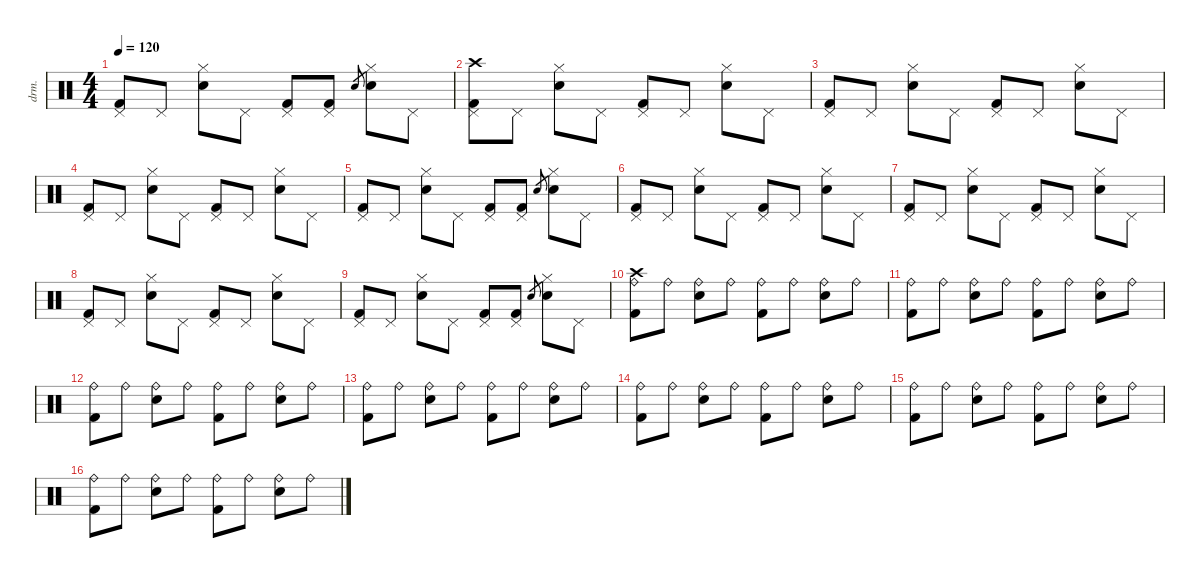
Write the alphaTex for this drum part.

\defaultSystemsLayout 4
\hideDynamics
\bracketExtendMode nobrackets
\otherSystemsTrackNameOrientation horizontal
\track ("Jeff Campitelli" "drm.") {instrument percussion}
\staff {score}
\articulation defaults
\ts (4 4)
\tempo 120
\clef neutral
\ks c
("Pedal Hi-Hat (hit)" "Kick (hit) 2").8{dy f beam Up} "Pedal Hi-Hat (hit)".8{beam Up} ("Hi-Hat (closed)" "Snare (hit) 2").8{beam Down} "Pedal Hi-Hat (hit)".8{beam Down} ("Pedal Hi-Hat (hit)" "Kick (hit) 2").8{beam Up} ("Pedal Hi-Hat (hit)" "Kick (hit) 2").8{beam Up} "Snare (hit) 2".8{gr dy mf beam Up} ("Hi-Hat (closed)" "Snare (hit) 2").8{dy f beam Down} "Pedal Hi-Hat (hit)".8{beam Down} |
("Crash high (hit)" "Pedal Hi-Hat (hit)" "Kick (hit) 2").8{beam Down} "Pedal Hi-Hat (hit)".8{beam Down} ("Hi-Hat (closed)" "Snare (hit) 2").8{beam Down} "Pedal Hi-Hat (hit)".8{beam Down} ("Pedal Hi-Hat (hit)" "Kick (hit) 2").8{beam Up} "Pedal Hi-Hat (hit)".8{beam Up} ("Hi-Hat (closed)" "Snare (hit) 2").8{beam Down} "Pedal Hi-Hat (hit)".8{beam Down} |
("Pedal Hi-Hat (hit)" "Kick (hit) 2").8{beam Up} "Pedal Hi-Hat (hit)".8{beam Up} ("Hi-Hat (closed)" "Snare (hit) 2").8{beam Down} "Pedal Hi-Hat (hit)".8{beam Down} ("Pedal Hi-Hat (hit)" "Kick (hit) 2").8{beam Up} "Pedal Hi-Hat (hit)".8{beam Up} ("Hi-Hat (closed)" "Snare (hit) 2").8{beam Down} "Pedal Hi-Hat (hit)".8{beam Down} |
("Pedal Hi-Hat (hit)" "Kick (hit) 2").8{beam Up} "Pedal Hi-Hat (hit)".8{beam Up} ("Hi-Hat (closed)" "Snare (hit) 2").8{beam Down} "Pedal Hi-Hat (hit)".8{beam Down} ("Pedal Hi-Hat (hit)" "Kick (hit) 2").8{beam Up} "Pedal Hi-Hat (hit)".8{beam Up} ("Hi-Hat (closed)" "Snare (hit) 2").8{beam Down} "Pedal Hi-Hat (hit)".8{beam Down} |
("Pedal Hi-Hat (hit)" "Kick (hit) 2").8{beam Up} "Pedal Hi-Hat (hit)".8{beam Up} ("Hi-Hat (closed)" "Snare (hit) 2").8{beam Down} "Pedal Hi-Hat (hit)".8{beam Down} ("Pedal Hi-Hat (hit)" "Kick (hit) 2").8{beam Up} ("Pedal Hi-Hat (hit)" "Kick (hit) 2").8{beam Up} "Snare (hit) 2".8{gr dy mf beam Up} ("Hi-Hat (closed)" "Snare (hit) 2").8{dy f beam Down} "Pedal Hi-Hat (hit)".8{beam Down} |
("Pedal Hi-Hat (hit)" "Kick (hit) 2").8{beam Up} "Pedal Hi-Hat (hit)".8{beam Up} ("Hi-Hat (closed)" "Snare (hit) 2").8{beam Down} "Pedal Hi-Hat (hit)".8{beam Down} ("Pedal Hi-Hat (hit)" "Kick (hit) 2").8{beam Up} "Pedal Hi-Hat (hit)".8{beam Up} ("Hi-Hat (closed)" "Snare (hit) 2").8{beam Down} "Pedal Hi-Hat (hit)".8{beam Down} |
("Pedal Hi-Hat (hit)" "Kick (hit) 2").8{beam Up} "Pedal Hi-Hat (hit)".8{beam Up} ("Hi-Hat (closed)" "Snare (hit) 2").8{beam Down} "Pedal Hi-Hat (hit)".8{beam Down} ("Pedal Hi-Hat (hit)" "Kick (hit) 2").8{beam Up} "Pedal Hi-Hat (hit)".8{beam Up} ("Hi-Hat (closed)" "Snare (hit) 2").8{beam Down} "Pedal Hi-Hat (hit)".8{beam Down} |
("Pedal Hi-Hat (hit)" "Kick (hit) 2").8{beam Up} "Pedal Hi-Hat (hit)".8{beam Up} ("Hi-Hat (closed)" "Snare (hit) 2").8{beam Down} "Pedal Hi-Hat (hit)".8{beam Down} ("Pedal Hi-Hat (hit)" "Kick (hit) 2").8{beam Up} "Pedal Hi-Hat (hit)".8{beam Up} ("Hi-Hat (closed)" "Snare (hit) 2").8{beam Down} "Pedal Hi-Hat (hit)".8{beam Down} |
("Pedal Hi-Hat (hit)" "Kick (hit) 2").8{beam Up} "Pedal Hi-Hat (hit)".8{beam Up} ("Hi-Hat (closed)" "Snare (hit) 2").8{beam Down} "Pedal Hi-Hat (hit)".8{beam Down} ("Pedal Hi-Hat (hit)" "Kick (hit) 2").8{beam Up} ("Pedal Hi-Hat (hit)" "Kick (hit) 2").8{beam Up} "Snare (hit) 2".8{gr dy mf beam Up} ("Hi-Hat (closed)" "Snare (hit) 2").8{dy f beam Down} "Pedal Hi-Hat (hit)".8{beam Down} |
("Crash high (hit)" "Ride (bell)" "Kick (hit) 2").8{beam Down} "Ride (bell)".8{beam Down} ("Ride (bell)" "Snare (hit) 2").8{beam Down} "Ride (bell)".8{beam Down} ("Ride (bell)" "Kick (hit) 2").8{beam Down} "Ride (bell)".8{beam Down} ("Ride (bell)" "Snare (hit) 2").8{beam Down} "Ride (bell)".8{beam Down} |
("Ride (bell)" "Kick (hit) 2").8{beam Down} "Ride (bell)".8{beam Down} ("Ride (bell)" "Snare (hit) 2").8{beam Down} "Ride (bell)".8{beam Down} ("Ride (bell)" "Kick (hit) 2").8{beam Down} "Ride (bell)".8{beam Down} ("Ride (bell)" "Snare (hit) 2").8{beam Down} "Ride (bell)".8{beam Down} |
("Ride (bell)" "Kick (hit) 2").8{beam Down} "Ride (bell)".8{beam Down} ("Ride (bell)" "Snare (hit) 2").8{beam Down} "Ride (bell)".8{beam Down} ("Ride (bell)" "Kick (hit) 2").8{beam Down} "Ride (bell)".8{beam Down} ("Ride (bell)" "Snare (hit) 2").8{beam Down} "Ride (bell)".8{beam Down} |
("Ride (bell)" "Kick (hit) 2").8{beam Down} "Ride (bell)".8{beam Down} ("Ride (bell)" "Snare (hit) 2").8{beam Down} "Ride (bell)".8{beam Down} ("Ride (bell)" "Kick (hit) 2").8{beam Down} "Ride (bell)".8{beam Down} ("Ride (bell)" "Snare (hit) 2").8{beam Down} "Ride (bell)".8{beam Down} |
("Ride (bell)" "Kick (hit) 2").8{beam Down} "Ride (bell)".8{beam Down} ("Ride (bell)" "Snare (hit) 2").8{beam Down} "Ride (bell)".8{beam Down} ("Ride (bell)" "Kick (hit) 2").8{beam Down} "Ride (bell)".8{beam Down} ("Ride (bell)" "Snare (hit) 2").8{beam Down} "Ride (bell)".8{beam Down} |
("Ride (bell)" "Kick (hit) 2").8{beam Down} "Ride (bell)".8{beam Down} ("Ride (bell)" "Snare (hit) 2").8{beam Down} "Ride (bell)".8{beam Down} ("Ride (bell)" "Kick (hit) 2").8{beam Down} "Ride (bell)".8{beam Down} ("Ride (bell)" "Snare (hit) 2").8{beam Down} "Ride (bell)".8{beam Down} |
("Ride (bell)" "Kick (hit) 2").8{beam Down} "Ride (bell)".8{beam Down} ("Ride (bell)" "Snare (hit) 2").8{beam Down} "Ride (bell)".8{beam Down} ("Ride (bell)" "Kick (hit) 2").8{beam Down} "Ride (bell)".8{beam Down} ("Ride (bell)" "Snare (hit) 2").8{beam Down} "Ride (bell)".8{beam Down}
